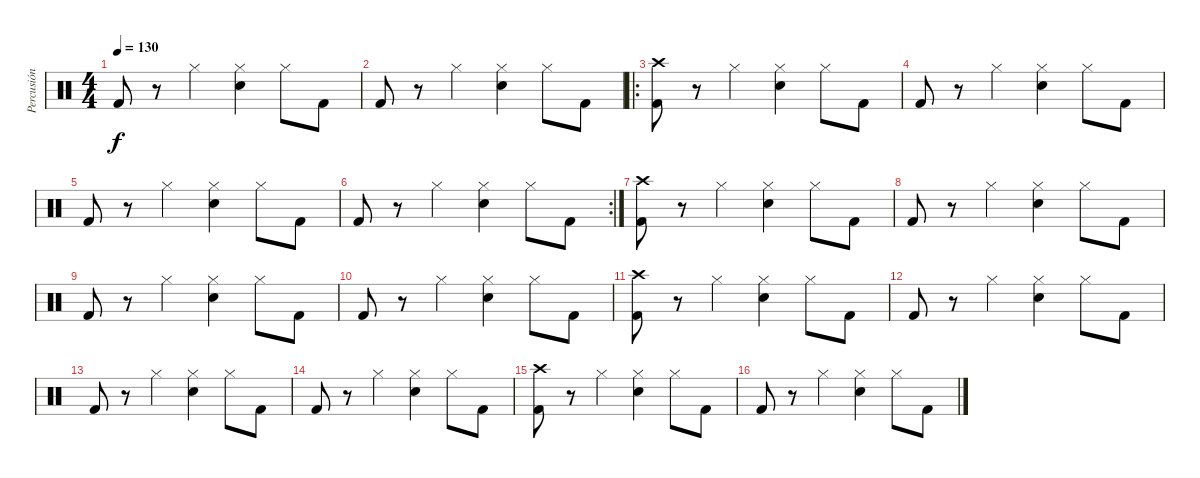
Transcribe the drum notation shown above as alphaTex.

\track ("Percusión" "Percusión") {instrument percussion}
\staff {score}
\articulation defaults
\ts (4 4)
\tempo 130
\clef neutral
\ks c "Kick (hit) 2".8{dy f}
r.8 "Hi-Hat (closed)".4 ("Electric Snare (hit)" "Hi-Hat (closed)").4 "Hi-Hat (closed)".8 "Kick (hit) 2".8 |
"Kick (hit) 2".8 r.8 "Hi-Hat (closed)".4 ("Electric Snare (hit)" "Hi-Hat (closed)").4 "Hi-Hat (closed)".8 "Kick (hit) 2".8 |
\ro
("Crash high (hit)" "Kick (hit) 2").8 r.8 "Hi-Hat (closed)".4 ("Electric Snare (hit)" "Hi-Hat (closed)").4 "Hi-Hat (closed)".8 "Kick (hit) 2".8 |
"Kick (hit) 2".8 r.8 "Hi-Hat (closed)".4 ("Electric Snare (hit)" "Hi-Hat (closed)").4 "Hi-Hat (closed)".8 "Kick (hit) 2".8 |
"Kick (hit) 2".8 r.8 "Hi-Hat (closed)".4 ("Electric Snare (hit)" "Hi-Hat (closed)").4 "Hi-Hat (closed)".8 "Kick (hit) 2".8 |
\rc 2 "Kick (hit) 2".8
r.8 "Hi-Hat (closed)".4 ("Electric Snare (hit)" "Hi-Hat (closed)").4 "Hi-Hat (closed)".8 "Kick (hit) 2".8 |
("Crash high (hit)" "Kick (hit) 2").8 r.8 "Hi-Hat (closed)".4 ("Electric Snare (hit)" "Hi-Hat (closed)").4 "Hi-Hat (closed)".8 "Kick (hit) 2".8 |
"Kick (hit) 2".8 r.8 "Hi-Hat (closed)".4 ("Electric Snare (hit)" "Hi-Hat (closed)").4 "Hi-Hat (closed)".8 "Kick (hit) 2".8 |
"Kick (hit) 2".8 r.8 "Hi-Hat (closed)".4 ("Electric Snare (hit)" "Hi-Hat (closed)").4 "Hi-Hat (closed)".8 "Kick (hit) 2".8 |
"Kick (hit) 2".8 r.8 "Hi-Hat (closed)".4 ("Electric Snare (hit)" "Hi-Hat (closed)").4 "Hi-Hat (closed)".8 "Kick (hit) 2".8 |
("Crash high (hit)" "Kick (hit) 2").8 r.8 "Hi-Hat (closed)".4 ("Electric Snare (hit)" "Hi-Hat (closed)").4 "Hi-Hat (closed)".8 "Kick (hit) 2".8 |
"Kick (hit) 2".8 r.8 "Hi-Hat (closed)".4 ("Electric Snare (hit)" "Hi-Hat (closed)").4 "Hi-Hat (closed)".8 "Kick (hit) 2".8 |
"Kick (hit) 2".8 r.8 "Hi-Hat (closed)".4 ("Electric Snare (hit)" "Hi-Hat (closed)").4 "Hi-Hat (closed)".8 "Kick (hit) 2".8 |
"Kick (hit) 2".8 r.8 "Hi-Hat (closed)".4 ("Electric Snare (hit)" "Hi-Hat (closed)").4 "Hi-Hat (closed)".8 "Kick (hit) 2".8 |
("Crash high (hit)" "Kick (hit) 2").8 r.8 "Hi-Hat (closed)".4 ("Electric Snare (hit)" "Hi-Hat (closed)").4 "Hi-Hat (closed)".8 "Kick (hit) 2".8 |
"Kick (hit) 2".8 r.8 "Hi-Hat (closed)".4 ("Electric Snare (hit)" "Hi-Hat (closed)").4 "Hi-Hat (closed)".8 "Kick (hit) 2".8
